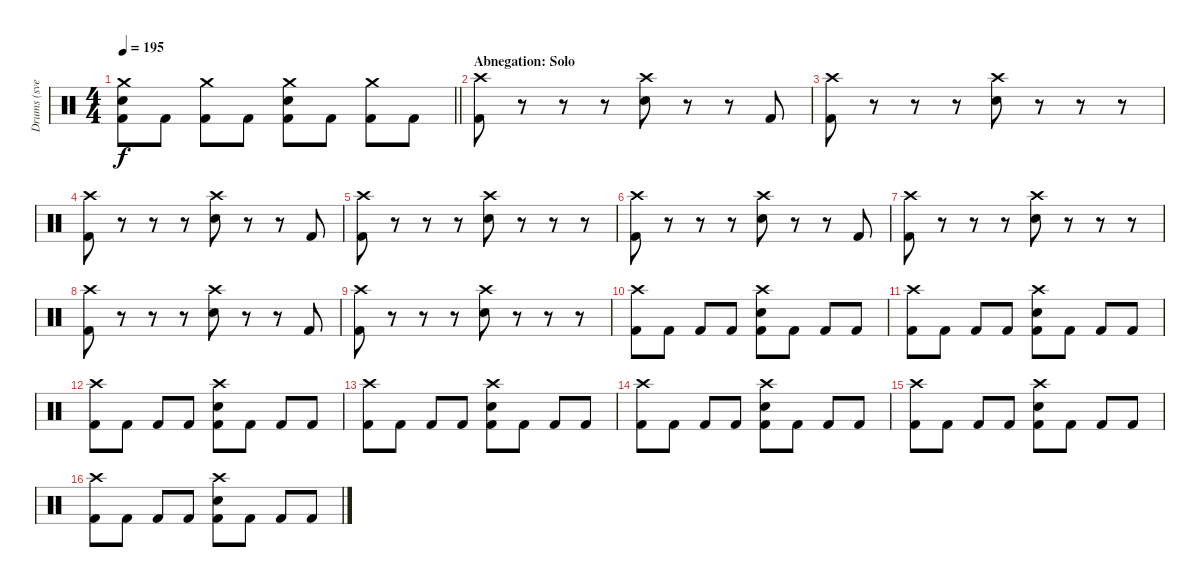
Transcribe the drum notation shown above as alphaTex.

\track ("Drums (svelle)" "Drums (sve") {instrument percussion}
\staff {score}
\articulation defaults
\ts (4 4)
\tempo 195
\clef neutral
\barLineRight lightlight
\ks c
("Crash medium (hit)" "Electric Snare (hit)" "Kick (hit) 2").8{dy f} "Kick (hit) 2".8 ("Crash medium (hit)" "Kick (hit) 2").8 "Kick (hit) 2".8 ("Crash medium (hit)" "Electric Snare (hit)" "Kick (hit) 2").8 "Kick (hit) 2".8 ("Crash medium (hit)" "Kick (hit) 2").8 "Kick (hit) 2".8 |
\section ("" "Abnegation: Solo")
("Crash high (hit)" "Kick (hit) 2").8 r.8 r.8 r.8 ("Crash high (hit)" "Electric Snare (hit)").8 r.8 r.8 "Kick (hit) 2".8 |
("Crash high (hit)" "Kick (hit) 2").8 r.8 r.8 r.8 ("Crash high (hit)" "Electric Snare (hit)").8 r.8 r.8 r.8 |
("Crash high (hit)" "Kick (hit) 2").8 r.8 r.8 r.8 ("Crash high (hit)" "Electric Snare (hit)").8 r.8 r.8 "Kick (hit) 2".8 |
("Crash high (hit)" "Kick (hit) 2").8 r.8 r.8 r.8 ("Crash high (hit)" "Electric Snare (hit)").8 r.8 r.8 r.8 |
("Crash high (hit)" "Kick (hit) 2").8 r.8 r.8 r.8 ("Crash high (hit)" "Electric Snare (hit)").8 r.8 r.8 "Kick (hit) 2".8 |
("Crash high (hit)" "Kick (hit) 2").8 r.8 r.8 r.8 ("Crash high (hit)" "Electric Snare (hit)").8 r.8 r.8 r.8 |
("Crash high (hit)" "Kick (hit) 2").8 r.8 r.8 r.8 ("Crash high (hit)" "Electric Snare (hit)").8 r.8 r.8 "Kick (hit) 2".8 |
("Crash high (hit)" "Kick (hit) 2").8 r.8 r.8 r.8 ("Crash high (hit)" "Electric Snare (hit)").8 r.8 r.8 r.8 |
("Crash high (hit)" "Kick (hit) 2").8 "Kick (hit) 2".8 "Kick (hit) 2".8 "Kick (hit) 2".8 ("Crash high (hit)" "Electric Snare (hit)" "Kick (hit) 2").8 "Kick (hit) 2".8 "Kick (hit) 2".8 "Kick (hit) 2".8 |
("Crash high (hit)" "Kick (hit) 2").8 "Kick (hit) 2".8 "Kick (hit) 2".8 "Kick (hit) 2".8 ("Crash high (hit)" "Electric Snare (hit)" "Kick (hit) 2").8 "Kick (hit) 2".8 "Kick (hit) 2".8 "Kick (hit) 2".8 |
("Crash high (hit)" "Kick (hit) 2").8 "Kick (hit) 2".8 "Kick (hit) 2".8 "Kick (hit) 2".8 ("Crash high (hit)" "Electric Snare (hit)" "Kick (hit) 2").8 "Kick (hit) 2".8 "Kick (hit) 2".8 "Kick (hit) 2".8 |
("Crash high (hit)" "Kick (hit) 2").8 "Kick (hit) 2".8 "Kick (hit) 2".8 "Kick (hit) 2".8 ("Crash high (hit)" "Electric Snare (hit)" "Kick (hit) 2").8 "Kick (hit) 2".8 "Kick (hit) 2".8 "Kick (hit) 2".8 |
("Crash high (hit)" "Kick (hit) 2").8 "Kick (hit) 2".8 "Kick (hit) 2".8 "Kick (hit) 2".8 ("Crash high (hit)" "Electric Snare (hit)" "Kick (hit) 2").8 "Kick (hit) 2".8 "Kick (hit) 2".8 "Kick (hit) 2".8 |
("Crash high (hit)" "Kick (hit) 2").8 "Kick (hit) 2".8 "Kick (hit) 2".8 "Kick (hit) 2".8 ("Crash high (hit)" "Electric Snare (hit)" "Kick (hit) 2").8 "Kick (hit) 2".8 "Kick (hit) 2".8 "Kick (hit) 2".8 |
("Crash high (hit)" "Kick (hit) 2").8 "Kick (hit) 2".8 "Kick (hit) 2".8 "Kick (hit) 2".8 ("Crash high (hit)" "Electric Snare (hit)" "Kick (hit) 2").8 "Kick (hit) 2".8 "Kick (hit) 2".8 "Kick (hit) 2".8
